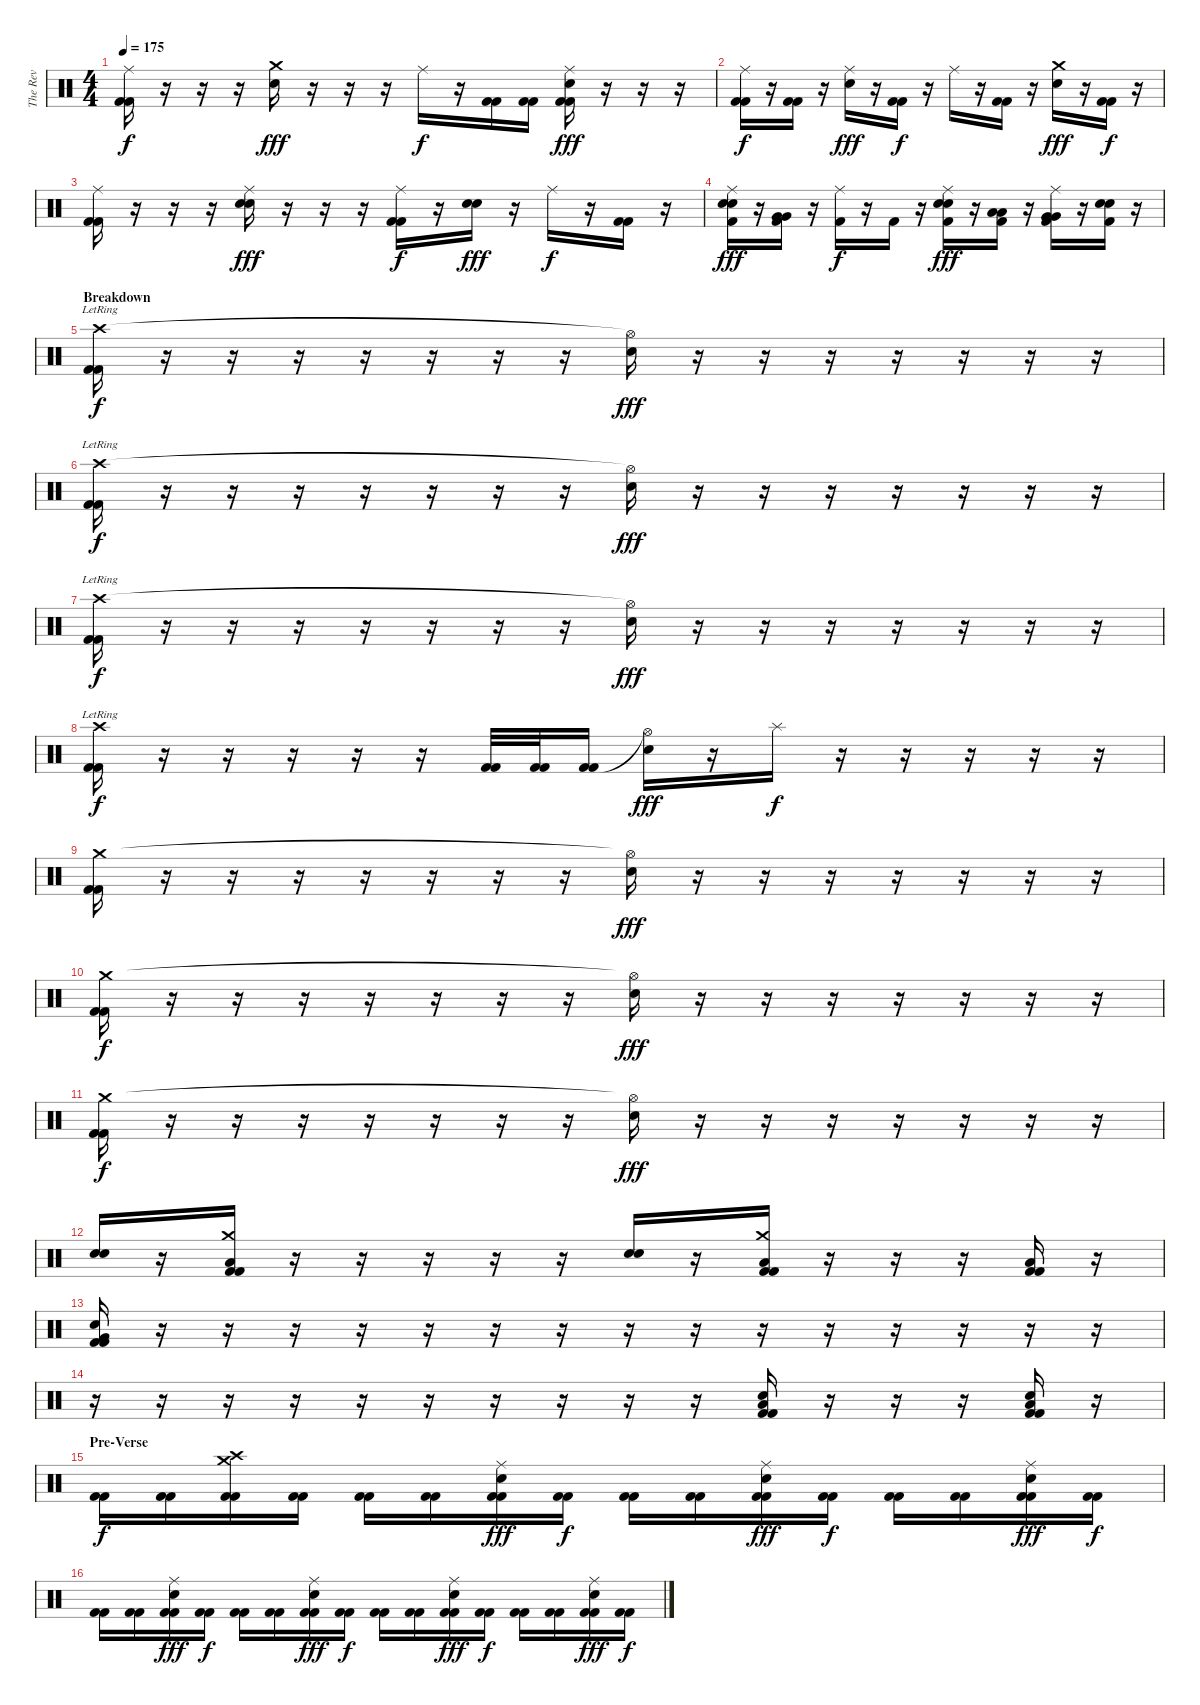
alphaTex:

\track ("The Rev" "The Rev") {instrument percussion}
\staff {score}
\articulation defaults
\ts (4 4)
\tempo 175
\clef neutral
\ks c
("Ride (middle)" "Kick (hit) 2" "Kick (hit) 2").16{dy f} r.16 r.16 r.16 ("Crash medium (hit)" "Electric Snare (hit)").16{dy fff} r.16 r.16 r.16 "Ride (middle)".16{dy f} r.16 ("Kick (hit) 2" "Kick (hit) 2").16 ("Kick (hit) 2" "Kick (hit) 2").16 ("Ride (middle)" "Electric Snare (hit)" "Kick (hit) 2" "Kick (hit) 2").16{dy fff} r.16 r.16 r.16 |
("Ride (middle)" "Kick (hit) 2" "Kick (hit) 2").16{dy f} r.16 ("Kick (hit) 2" "Kick (hit) 2").16 r.16 ("Ride (middle)" "Electric Snare (hit)").16{dy fff} r.16 ("Kick (hit) 2" "Kick (hit) 2").16{dy f} r.16 "Ride (middle)".16 r.16 ("Kick (hit) 2" "Kick (hit) 2").16 r.16 ("Crash medium (hit)" "Electric Snare (hit)").16{dy fff} r.16 ("Kick (hit) 2" "Kick (hit) 2").16{dy f} r.16 |
("Ride (middle)" "Kick (hit) 2" "Kick (hit) 2").16 r.16 r.16 r.16 ("Ride (middle)" "Electric Snare (hit)" "Electric Snare (hit)").16{dy fff} r.16 r.16 r.16 ("Ride (middle)" "Kick (hit) 2" "Kick (hit) 2").16{dy f} r.16 ("Electric Snare (hit)" "Electric Snare (hit)").16{dy fff} r.16 "Ride (middle)".16{dy f} r.16 ("Kick (hit) 2" "Kick (hit) 2").16 r.16 |
("Ride (middle)" "Electric Snare (hit)" "Electric Snare (hit)" "Kick (hit) 2").16{dy fff} r.16 ("Very Low Tom (hit)" "Very Low Tom (hit)" "Kick (hit) 2").16 r.16 ("Ride (middle)" "Kick (hit) 2").16{dy f} r.16 "Kick (hit) 2".16 r.16 ("Ride (middle)" "Electric Snare (hit)" "Electric Snare (hit)" "Kick (hit) 2").16{dy fff} r.16 ("Low Tom (hit)" "Low Tom (hit)" "Kick (hit) 2").16 r.16 ("Ride (middle)" "Very Low Tom (hit)" "Very Low Tom (hit)" "Kick (hit) 2").16 r.16 ("Electric Snare (hit)" "Electric Snare (hit)" "Kick (hit) 2").16 r.16 |
\section ("" "Breakdown")
("Crash high (hit)"{lr} "Kick (hit) 2" "Kick (hit) 2").16{dy f} r.16 r.16 r.16 r.16 r.16 r.16 r.16 ("Hi-Hat (open)"{t} "Electric Snare (hit)").16{dy fff} r.16 r.16 r.16 r.16 r.16 r.16 r.16 |
("Crash high (hit)"{lr} "Kick (hit) 2" "Kick (hit) 2").16{dy f} r.16 r.16 r.16 r.16 r.16 r.16 r.16 ("Hi-Hat (open)"{t} "Electric Snare (hit)").16{dy fff} r.16 r.16 r.16 r.16 r.16 r.16 r.16 |
("Crash high (hit)"{lr} "Kick (hit) 2" "Kick (hit) 2").16{dy f} r.16 r.16 r.16 r.16 r.16 r.16 r.16 ("Hi-Hat (open)"{t} "Electric Snare (hit)").16{dy fff} r.16 r.16 r.16 r.16 r.16 r.16 r.16 |
("Crash high (hit)"{lr} "Kick (hit) 2" "Kick (hit) 2").16{dy f} r.16 r.16 r.16 r.16 r.16 ("Kick (hit) 2" "Kick (hit) 2").32 ("Kick (hit) 2" "Kick (hit) 2").32 ("Kick (hit) 2" "Kick (hit) 2").16 ("Hi-Hat (open)"{t} "Electric Snare (hit)").16{dy fff} r.16 "Splash (hit)".16{dy f} r.16 r.16 r.16 r.16 r.16 |
("Crash medium (hit)" "Kick (hit) 2" "Kick (hit) 2").16 r.16 r.16 r.16 r.16 r.16 r.16 r.16 ("Hi-Hat (open)"{t} "Electric Snare (hit)").16{dy fff} r.16 r.16 r.16 r.16 r.16 r.16 r.16 |
("Crash medium (hit)" "Kick (hit) 2" "Kick (hit) 2").16{dy f} r.16 r.16 r.16 r.16 r.16 r.16 r.16 ("Hi-Hat (open)"{t} "Electric Snare (hit)").16{dy fff} r.16 r.16 r.16 r.16 r.16 r.16 r.16 |
("Crash medium (hit)" "Kick (hit) 2" "Kick (hit) 2").16{dy f} r.16 r.16 r.16 r.16 r.16 r.16 r.16 ("Hi-Hat (open)"{t} "Electric Snare (hit)").16{dy fff} r.16 r.16 r.16 r.16 r.16 r.16 r.16 |
("Electric Snare (hit)" "Electric Snare (hit)").16 r.16 ("Crash medium (hit)" "Low Floor Tom (hit)" "Kick (hit) 2" "Kick (hit) 2").16 r.16 r.16 r.16 r.16 r.16 ("Electric Snare (hit)" "Electric Snare (hit)").16 r.16 ("Crash medium (hit)" "Low Floor Tom (hit)" "Kick (hit) 2" "Kick (hit) 2").16 r.16 r.16 r.16 ("Low Floor Tom (hit)" "Kick (hit) 2" "Kick (hit) 2").16 r.16 |
("Very Low Tom (hit)" "Electric Snare (hit)" "Kick (hit) 2" "Kick (hit) 2").16 r.16 r.16 r.16 r.16 r.16 r.16 r.16 r.16 r.16 r.16 r.16 r.16 r.16 r.16 r.16 |
r.16 r.16 r.16 r.16 r.16 r.16 r.16 r.16 r.16 r.16 ("Electric Snare (hit)" "Low Floor Tom (hit)" "Kick (hit) 2" "Kick (hit) 2").16 r.16 r.16 r.16 ("Electric Snare (hit)" "Low Floor Tom (hit)" "Kick (hit) 2" "Kick (hit) 2").16 r.16 |
\section ("" "Pre-Verse")
("Kick (hit) 2" "Kick (hit) 2").16{dy f} ("Kick (hit) 2" "Kick (hit) 2").16 ("Crash medium (hit)" "Crash high (hit)" "Kick (hit) 2" "Kick (hit) 2").16 ("Kick (hit) 2" "Kick (hit) 2").16 ("Kick (hit) 2" "Kick (hit) 2").16 ("Kick (hit) 2" "Kick (hit) 2").16 ("Ride (middle)" "Electric Snare (hit)" "Kick (hit) 2" "Kick (hit) 2").16{dy fff} ("Kick (hit) 2" "Kick (hit) 2").16{dy f} ("Kick (hit) 2" "Kick (hit) 2").16 ("Kick (hit) 2" "Kick (hit) 2").16 ("Ride (middle)" "Electric Snare (hit)" "Kick (hit) 2" "Kick (hit) 2").16{dy fff} ("Kick (hit) 2" "Kick (hit) 2").16{dy f} ("Kick (hit) 2" "Kick (hit) 2").16 ("Kick (hit) 2" "Kick (hit) 2").16 ("Ride (middle)" "Electric Snare (hit)" "Kick (hit) 2" "Kick (hit) 2").16{dy fff} ("Kick (hit) 2" "Kick (hit) 2").16{dy f} |
("Kick (hit) 2" "Kick (hit) 2").16 ("Kick (hit) 2" "Kick (hit) 2").16 ("Ride (middle)" "Electric Snare (hit)" "Kick (hit) 2" "Kick (hit) 2").16{dy fff} ("Kick (hit) 2" "Kick (hit) 2").16{dy f} ("Kick (hit) 2" "Kick (hit) 2").16 ("Kick (hit) 2" "Kick (hit) 2").16 ("Ride (middle)" "Electric Snare (hit)" "Kick (hit) 2" "Kick (hit) 2").16{dy fff} ("Kick (hit) 2" "Kick (hit) 2").16{dy f} ("Kick (hit) 2" "Kick (hit) 2").16 ("Kick (hit) 2" "Kick (hit) 2").16 ("Ride (middle)" "Electric Snare (hit)" "Kick (hit) 2" "Kick (hit) 2").16{dy fff} ("Kick (hit) 2" "Kick (hit) 2").16{dy f} ("Kick (hit) 2" "Kick (hit) 2").16 ("Kick (hit) 2" "Kick (hit) 2").16 ("Ride (middle)" "Electric Snare (hit)" "Kick (hit) 2" "Kick (hit) 2").16{dy fff} ("Kick (hit) 2" "Kick (hit) 2").16{dy f}
